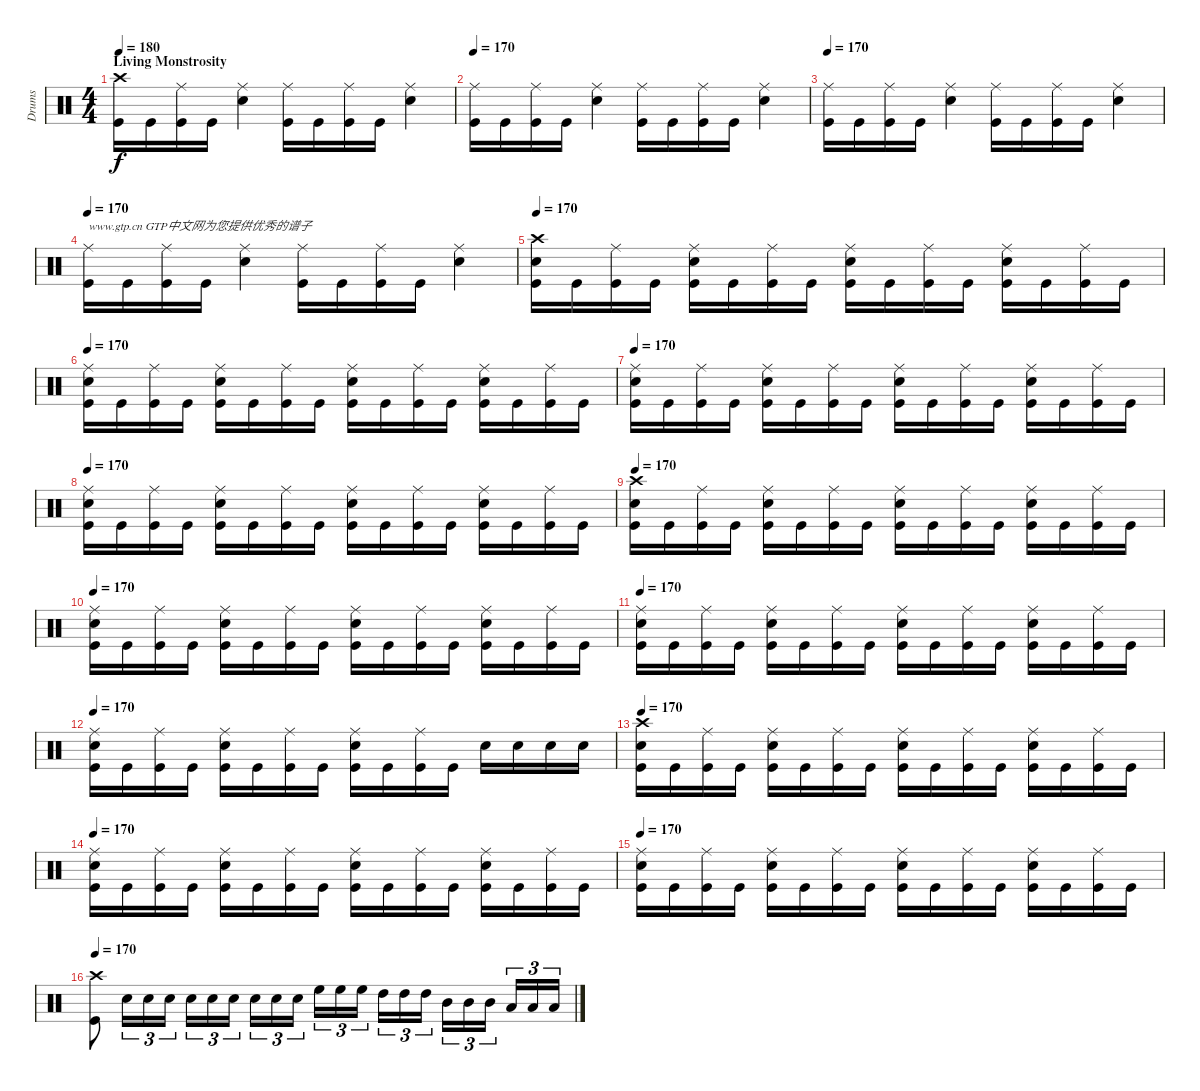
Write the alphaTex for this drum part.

\track ("Drums" "Drums") {instrument percussion}
\staff {score}
\articulation defaults
\ts (4 4)
\section ("" "Living Monstrosity")
\tempo 180
\tempo 170
\tempo 180
\clef neutral
\ks c
("Crash high (hit)" "Kick (hit)").16{dy f} "Kick (hit)".16 ("Ride (middle)" "Kick (hit)").16 "Kick (hit)".16 ("Ride (middle)" "Snare (hit) 2").4 ("Ride (middle)" "Kick (hit)").16 "Kick (hit)".16 ("Ride (middle)" "Kick (hit)").16 "Kick (hit)".16 ("Ride (middle)" "Snare (hit) 2").4 |
\tempo 170
("Ride (middle)" "Kick (hit)").16 "Kick (hit)".16 ("Ride (middle)" "Kick (hit)").16 "Kick (hit)".16 ("Ride (middle)" "Snare (hit) 2").4 ("Ride (middle)" "Kick (hit)").16 "Kick (hit)".16 ("Ride (middle)" "Kick (hit)").16 "Kick (hit)".16 ("Ride (middle)" "Snare (hit) 2").4 |
\tempo 170
("Ride (middle)" "Kick (hit)").16 "Kick (hit)".16 ("Ride (middle)" "Kick (hit)").16 "Kick (hit)".16 ("Ride (middle)" "Snare (hit) 2").4 ("Ride (middle)" "Kick (hit)").16 "Kick (hit)".16 ("Ride (middle)" "Kick (hit)").16 "Kick (hit)".16 ("Ride (middle)" "Snare (hit) 2").4 |
\tempo 170
("Ride (middle)" "Kick (hit)").16{txt "www.gtp.cn GTP中文网为您提供优秀的谱子"} "Kick (hit)".16 ("Ride (middle)" "Kick (hit)").16 "Kick (hit)".16 ("Ride (middle)" "Snare (hit) 2").4 ("Ride (middle)" "Kick (hit)").16 "Kick (hit)".16 ("Ride (middle)" "Kick (hit)").16 "Kick (hit)".16 ("Ride (middle)" "Snare (hit) 2").4 |
\tempo 170
("Crash high (hit)" "Snare (hit) 2" "Kick (hit)").16 "Kick (hit)".16 ("Ride (middle)" "Kick (hit)").16 "Kick (hit)".16 ("Ride (middle)" "Snare (hit) 2" "Kick (hit)").16 "Kick (hit)".16 ("Ride (middle)" "Kick (hit)").16 "Kick (hit)".16 ("Ride (middle)" "Snare (hit) 2" "Kick (hit)").16 "Kick (hit)".16 ("Ride (middle)" "Kick (hit)").16 "Kick (hit)".16 ("Ride (middle)" "Snare (hit) 2" "Kick (hit)").16 "Kick (hit)".16 ("Ride (middle)" "Kick (hit)").16 "Kick (hit)".16 |
\tempo 170
("Ride (middle)" "Snare (hit) 2" "Kick (hit)").16 "Kick (hit)".16 ("Ride (middle)" "Kick (hit)").16 "Kick (hit)".16 ("Ride (middle)" "Snare (hit) 2" "Kick (hit)").16 "Kick (hit)".16 ("Ride (middle)" "Kick (hit)").16 "Kick (hit)".16 ("Ride (middle)" "Snare (hit) 2" "Kick (hit)").16 "Kick (hit)".16 ("Ride (middle)" "Kick (hit)").16 "Kick (hit)".16 ("Ride (middle)" "Snare (hit) 2" "Kick (hit)").16 "Kick (hit)".16 ("Ride (middle)" "Kick (hit)").16 "Kick (hit)".16 |
\tempo 170
("Ride (middle)" "Snare (hit) 2" "Kick (hit)").16 "Kick (hit)".16 ("Ride (middle)" "Kick (hit)").16 "Kick (hit)".16 ("Ride (middle)" "Snare (hit) 2" "Kick (hit)").16 "Kick (hit)".16 ("Ride (middle)" "Kick (hit)").16 "Kick (hit)".16 ("Ride (middle)" "Snare (hit) 2" "Kick (hit)").16 "Kick (hit)".16 ("Ride (middle)" "Kick (hit)").16 "Kick (hit)".16 ("Ride (middle)" "Snare (hit) 2" "Kick (hit)").16 "Kick (hit)".16 ("Ride (middle)" "Kick (hit)").16 "Kick (hit)".16 |
\tempo 170
("Ride (middle)" "Snare (hit) 2" "Kick (hit)").16 "Kick (hit)".16 ("Ride (middle)" "Kick (hit)").16 "Kick (hit)".16 ("Ride (middle)" "Snare (hit) 2" "Kick (hit)").16 "Kick (hit)".16 ("Ride (middle)" "Kick (hit)").16 "Kick (hit)".16 ("Ride (middle)" "Snare (hit) 2" "Kick (hit)").16 "Kick (hit)".16 ("Ride (middle)" "Kick (hit)").16 "Kick (hit)".16 ("Ride (middle)" "Snare (hit) 2" "Kick (hit)").16 "Kick (hit)".16 ("Ride (middle)" "Kick (hit)").16 "Kick (hit)".16 |
\tempo 170
("Crash high (hit)" "Snare (hit) 2" "Kick (hit)").16 "Kick (hit)".16 ("Ride (middle)" "Kick (hit)").16 "Kick (hit)".16 ("Ride (middle)" "Snare (hit) 2" "Kick (hit)").16 "Kick (hit)".16 ("Ride (middle)" "Kick (hit)").16 "Kick (hit)".16 ("Ride (middle)" "Snare (hit) 2" "Kick (hit)").16 "Kick (hit)".16 ("Ride (middle)" "Kick (hit)").16 "Kick (hit)".16 ("Ride (middle)" "Snare (hit) 2" "Kick (hit)").16 "Kick (hit)".16 ("Ride (middle)" "Kick (hit)").16 "Kick (hit)".16 |
\tempo 170
("Ride (middle)" "Snare (hit) 2" "Kick (hit)").16 "Kick (hit)".16 ("Ride (middle)" "Kick (hit)").16 "Kick (hit)".16 ("Ride (middle)" "Snare (hit) 2" "Kick (hit)").16 "Kick (hit)".16 ("Ride (middle)" "Kick (hit)").16 "Kick (hit)".16 ("Ride (middle)" "Snare (hit) 2" "Kick (hit)").16 "Kick (hit)".16 ("Ride (middle)" "Kick (hit)").16 "Kick (hit)".16 ("Ride (middle)" "Snare (hit) 2" "Kick (hit)").16 "Kick (hit)".16 ("Ride (middle)" "Kick (hit)").16 "Kick (hit)".16 |
\tempo 170
("Ride (middle)" "Snare (hit) 2" "Kick (hit)").16 "Kick (hit)".16 ("Ride (middle)" "Kick (hit)").16 "Kick (hit)".16 ("Ride (middle)" "Snare (hit) 2" "Kick (hit)").16 "Kick (hit)".16 ("Ride (middle)" "Kick (hit)").16 "Kick (hit)".16 ("Ride (middle)" "Snare (hit) 2" "Kick (hit)").16 "Kick (hit)".16 ("Ride (middle)" "Kick (hit)").16 "Kick (hit)".16 ("Ride (middle)" "Snare (hit) 2" "Kick (hit)").16 "Kick (hit)".16 ("Ride (middle)" "Kick (hit)").16 "Kick (hit)".16 |
\tempo 170
("Ride (middle)" "Snare (hit) 2" "Kick (hit)").16 "Kick (hit)".16 ("Ride (middle)" "Kick (hit)").16 "Kick (hit)".16 ("Ride (middle)" "Snare (hit) 2" "Kick (hit)").16 "Kick (hit)".16 ("Ride (middle)" "Kick (hit)").16 "Kick (hit)".16 ("Ride (middle)" "Snare (hit) 2" "Kick (hit)").16 "Kick (hit)".16 ("Ride (middle)" "Kick (hit)").16 "Kick (hit)".16 "Snare (hit) 2".16 "Snare (hit) 2".16 "Snare (hit) 2".16 "Snare (hit) 2".16 |
\tempo 170
("Crash high (hit)" "Snare (hit) 2" "Kick (hit)").16 "Kick (hit)".16 ("Ride (middle)" "Kick (hit)").16 "Kick (hit)".16 ("Ride (middle)" "Snare (hit) 2" "Kick (hit)").16 "Kick (hit)".16 ("Ride (middle)" "Kick (hit)").16 "Kick (hit)".16 ("Ride (middle)" "Snare (hit) 2" "Kick (hit)").16 "Kick (hit)".16 ("Ride (middle)" "Kick (hit)").16 "Kick (hit)".16 ("Ride (middle)" "Snare (hit) 2" "Kick (hit)").16 "Kick (hit)".16 ("Ride (middle)" "Kick (hit)").16 "Kick (hit)".16 |
\tempo 170
("Ride (middle)" "Snare (hit) 2" "Kick (hit)").16 "Kick (hit)".16 ("Ride (middle)" "Kick (hit)").16 "Kick (hit)".16 ("Ride (middle)" "Snare (hit) 2" "Kick (hit)").16 "Kick (hit)".16 ("Ride (middle)" "Kick (hit)").16 "Kick (hit)".16 ("Ride (middle)" "Snare (hit) 2" "Kick (hit)").16 "Kick (hit)".16 ("Ride (middle)" "Kick (hit)").16 "Kick (hit)".16 ("Ride (middle)" "Snare (hit) 2" "Kick (hit)").16 "Kick (hit)".16 ("Ride (middle)" "Kick (hit)").16 "Kick (hit)".16 |
\tempo 170
("Ride (middle)" "Snare (hit) 2" "Kick (hit)").16 "Kick (hit)".16 ("Ride (middle)" "Kick (hit)").16 "Kick (hit)".16 ("Ride (middle)" "Snare (hit) 2" "Kick (hit)").16 "Kick (hit)".16 ("Ride (middle)" "Kick (hit)").16 "Kick (hit)".16 ("Ride (middle)" "Snare (hit) 2" "Kick (hit)").16 "Kick (hit)".16 ("Ride (middle)" "Kick (hit)").16 "Kick (hit)".16 ("Ride (middle)" "Snare (hit) 2" "Kick (hit)").16 "Kick (hit)".16 ("Ride (middle)" "Kick (hit)").16 "Kick (hit)".16 |
\tempo 170
("Crash high (hit)" "Kick (hit)").8 "Snare (hit) 2".16{tu (3 2)} "Snare (hit) 2".16{tu (3 2)} "Snare (hit) 2".16{tu (3 2)} "Snare (hit) 2".16{tu (3 2)} "Snare (hit) 2".16{tu (3 2)} "Snare (hit) 2".16{tu (3 2)} "Snare (hit) 2".16{tu (3 2)} "Snare (hit) 2".16{tu (3 2)} "Snare (hit) 2".16{tu (3 2)} "High Floor Tom (hit)".16{tu (3 2)} "High Floor Tom (hit)".16{tu (3 2)} "High Floor Tom (hit)".16{tu (3 2)} "High Tom (hit)".16{tu (3 2)} "High Tom (hit)".16{tu (3 2)} "High Tom (hit)".16{tu (3 2)} "Mid Tom (hit)".16{tu (3 2)} "Mid Tom (hit)".16{tu (3 2)} "Mid Tom (hit)".16{tu (3 2)} "Low Tom (hit)".16{tu (3 2)} "Low Tom (hit)".16{tu (3 2)} "Low Tom (hit)".16{tu (3 2)}
